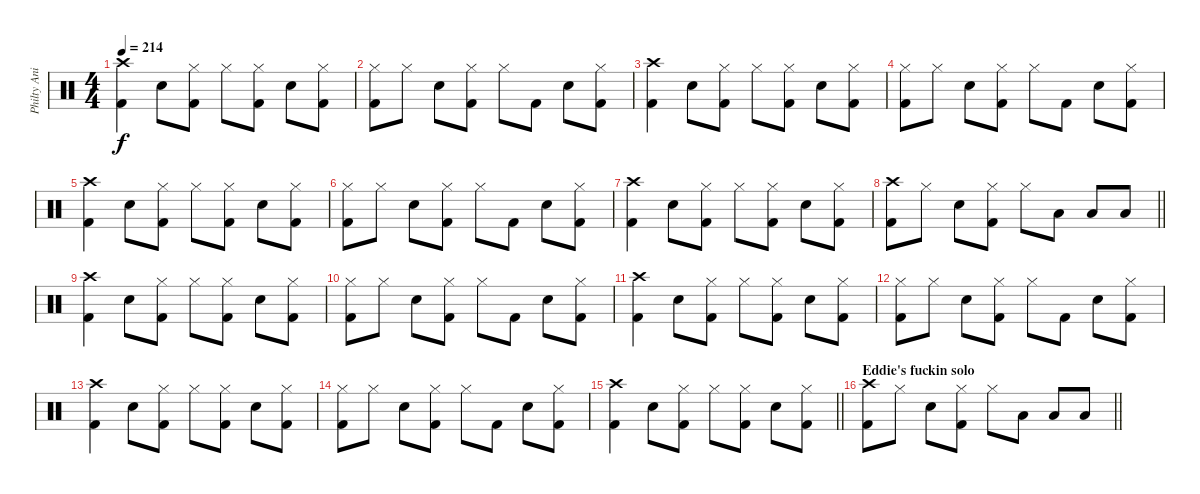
\track ("Philty Animal" "Philty Ani") {instrument percussion}
\staff {score}
\articulation defaults
\ts (4 4)
\tempo 214
\clef neutral
\ks c
("Kick (hit) 2" "Crash high (hit)").4{dy f} "Snare (hit) 2".8 ("Kick (hit) 2" "Hi-Hat (closed)").8 "Hi-Hat (closed)".8 ("Kick (hit) 2" "Hi-Hat (closed)").8 "Snare (hit) 2".8 ("Kick (hit) 2" "Hi-Hat (closed)").8 |
("Kick (hit) 2" "Hi-Hat (closed)").8 "Hi-Hat (closed)".8 "Snare (hit) 2".8 ("Hi-Hat (closed)" "Kick (hit) 2").8 "Hi-Hat (closed)".8 "Kick (hit) 2".8 "Snare (hit) 2".8 ("Kick (hit) 2" "Hi-Hat (closed)").8 |
("Kick (hit) 2" "Crash high (hit)").4 "Snare (hit) 2".8 ("Kick (hit) 2" "Hi-Hat (closed)").8 "Hi-Hat (closed)".8 ("Kick (hit) 2" "Hi-Hat (closed)").8 "Snare (hit) 2".8 ("Kick (hit) 2" "Hi-Hat (closed)").8 |
("Kick (hit) 2" "Hi-Hat (closed)").8 "Hi-Hat (closed)".8 "Snare (hit) 2".8 ("Hi-Hat (closed)" "Kick (hit) 2").8 "Hi-Hat (closed)".8 "Kick (hit) 2".8 "Snare (hit) 2".8 ("Kick (hit) 2" "Hi-Hat (closed)").8 |
("Kick (hit) 2" "Crash high (hit)").4 "Snare (hit) 2".8 ("Kick (hit) 2" "Hi-Hat (closed)").8 "Hi-Hat (closed)".8 ("Kick (hit) 2" "Hi-Hat (closed)").8 "Snare (hit) 2".8 ("Kick (hit) 2" "Hi-Hat (closed)").8 |
("Kick (hit) 2" "Hi-Hat (closed)").8 "Hi-Hat (closed)".8 "Snare (hit) 2".8 ("Hi-Hat (closed)" "Kick (hit) 2").8 "Hi-Hat (closed)".8 "Kick (hit) 2".8 "Snare (hit) 2".8 ("Kick (hit) 2" "Hi-Hat (closed)").8 |
("Kick (hit) 2" "Crash high (hit)").4 "Snare (hit) 2".8 ("Kick (hit) 2" "Hi-Hat (closed)").8 "Hi-Hat (closed)".8 ("Kick (hit) 2" "Hi-Hat (closed)").8 "Snare (hit) 2".8 ("Kick (hit) 2" "Hi-Hat (closed)").8 |
\barLineRight lightlight
("Crash high (hit)" "Kick (hit) 2").8 "Hi-Hat (closed)".8 "Snare (hit) 2".8 ("Hi-Hat (closed)" "Kick (hit) 2").8 "Hi-Hat (closed)".8 "Low Tom (hit)".8 "Low Tom (hit)".8 "Low Tom (hit)".8 |
("Kick (hit) 2" "Crash high (hit)").4 "Snare (hit) 2".8 ("Kick (hit) 2" "Hi-Hat (closed)").8 "Hi-Hat (closed)".8 ("Kick (hit) 2" "Hi-Hat (closed)").8 "Snare (hit) 2".8 ("Kick (hit) 2" "Hi-Hat (closed)").8 |
("Kick (hit) 2" "Hi-Hat (closed)").8 "Hi-Hat (closed)".8 "Snare (hit) 2".8 ("Hi-Hat (closed)" "Kick (hit) 2").8 "Hi-Hat (closed)".8 "Kick (hit) 2".8 "Snare (hit) 2".8 ("Kick (hit) 2" "Hi-Hat (closed)").8 |
("Kick (hit) 2" "Crash high (hit)").4 "Snare (hit) 2".8 ("Kick (hit) 2" "Hi-Hat (closed)").8 "Hi-Hat (closed)".8 ("Kick (hit) 2" "Hi-Hat (closed)").8 "Snare (hit) 2".8 ("Kick (hit) 2" "Hi-Hat (closed)").8 |
("Kick (hit) 2" "Hi-Hat (closed)").8 "Hi-Hat (closed)".8 "Snare (hit) 2".8 ("Hi-Hat (closed)" "Kick (hit) 2").8 "Hi-Hat (closed)".8 "Kick (hit) 2".8 "Snare (hit) 2".8 ("Kick (hit) 2" "Hi-Hat (closed)").8 |
("Kick (hit) 2" "Crash high (hit)").4 "Snare (hit) 2".8 ("Kick (hit) 2" "Hi-Hat (closed)").8 "Hi-Hat (closed)".8 ("Kick (hit) 2" "Hi-Hat (closed)").8 "Snare (hit) 2".8 ("Kick (hit) 2" "Hi-Hat (closed)").8 |
("Kick (hit) 2" "Hi-Hat (closed)").8 "Hi-Hat (closed)".8 "Snare (hit) 2".8 ("Hi-Hat (closed)" "Kick (hit) 2").8 "Hi-Hat (closed)".8 "Kick (hit) 2".8 "Snare (hit) 2".8 ("Kick (hit) 2" "Hi-Hat (closed)").8 |
\barLineRight lightlight
("Kick (hit) 2" "Crash high (hit)").4 "Snare (hit) 2".8 ("Kick (hit) 2" "Hi-Hat (closed)").8 "Hi-Hat (closed)".8 ("Kick (hit) 2" "Hi-Hat (closed)").8 "Snare (hit) 2".8 ("Kick (hit) 2" "Hi-Hat (closed)").8 |
\section ("" "Eddie's fuckin solo")
\barLineRight lightlight
("Crash high (hit)" "Kick (hit) 2").8 "Hi-Hat (closed)".8 "Snare (hit) 2".8 ("Hi-Hat (closed)" "Kick (hit) 2").8 "Hi-Hat (closed)".8 "Low Tom (hit)".8 "Low Tom (hit)".8 "Low Tom (hit)".8
